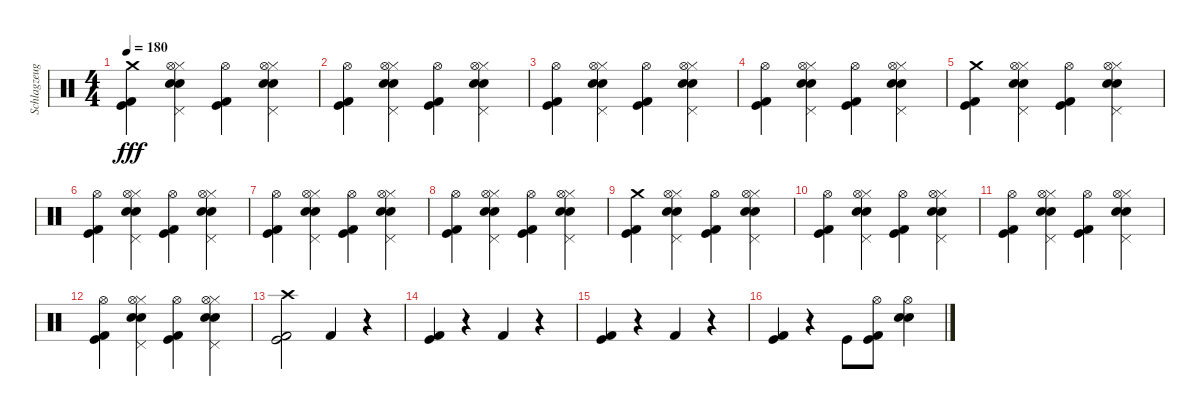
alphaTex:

\track ("Schlagzeug" "Schlagzeug") {instrument percussion}
\staff {score}
\articulation defaults
\ts (4 4)
\tempo 180
\clef neutral
\ks c
("Kick (hit)" "Kick (hit) 2" "Crash medium (hit)").4{dy fff} ("Electric Snare (hit)" "Hi-Hat (closed)" "Snare (hit) 2" "Pedal Hi-Hat (hit)" "Hi-Hat (open)").4 ("Kick (hit)" "Kick (hit) 2" "Hi-Hat (open)").4 ("Electric Snare (hit)" "Hi-Hat (closed)" "Snare (hit) 2" "Pedal Hi-Hat (hit)" "Hi-Hat (open)").4 |
("Kick (hit)" "Kick (hit) 2" "Hi-Hat (open)").4 ("Electric Snare (hit)" "Hi-Hat (closed)" "Snare (hit) 2" "Pedal Hi-Hat (hit)" "Hi-Hat (open)").4 ("Kick (hit)" "Kick (hit) 2" "Hi-Hat (open)").4 ("Electric Snare (hit)" "Hi-Hat (closed)" "Snare (hit) 2" "Pedal Hi-Hat (hit)" "Hi-Hat (open)").4 |
("Kick (hit)" "Kick (hit) 2" "Hi-Hat (open)").4 ("Electric Snare (hit)" "Hi-Hat (closed)" "Snare (hit) 2" "Pedal Hi-Hat (hit)" "Hi-Hat (open)").4 ("Kick (hit)" "Kick (hit) 2" "Hi-Hat (open)").4 ("Electric Snare (hit)" "Hi-Hat (closed)" "Snare (hit) 2" "Pedal Hi-Hat (hit)" "Hi-Hat (open)").4 |
("Kick (hit)" "Kick (hit) 2" "Hi-Hat (open)").4 ("Electric Snare (hit)" "Hi-Hat (closed)" "Snare (hit) 2" "Pedal Hi-Hat (hit)" "Hi-Hat (open)").4 ("Kick (hit)" "Kick (hit) 2" "Hi-Hat (open)").4 ("Electric Snare (hit)" "Hi-Hat (closed)" "Snare (hit) 2" "Pedal Hi-Hat (hit)" "Hi-Hat (open)").4 |
("Kick (hit)" "Kick (hit) 2" "Crash medium (hit)").4 ("Electric Snare (hit)" "Hi-Hat (closed)" "Snare (hit) 2" "Pedal Hi-Hat (hit)" "Hi-Hat (open)").4 ("Kick (hit)" "Kick (hit) 2" "Hi-Hat (open)").4 ("Electric Snare (hit)" "Hi-Hat (closed)" "Snare (hit) 2" "Pedal Hi-Hat (hit)" "Hi-Hat (open)").4 |
("Kick (hit)" "Kick (hit) 2" "Hi-Hat (open)").4 ("Electric Snare (hit)" "Hi-Hat (closed)" "Snare (hit) 2" "Pedal Hi-Hat (hit)" "Hi-Hat (open)").4 ("Kick (hit)" "Kick (hit) 2" "Hi-Hat (open)").4 ("Electric Snare (hit)" "Hi-Hat (closed)" "Snare (hit) 2" "Pedal Hi-Hat (hit)" "Hi-Hat (open)").4 |
("Kick (hit)" "Kick (hit) 2" "Hi-Hat (open)").4 ("Electric Snare (hit)" "Hi-Hat (closed)" "Snare (hit) 2" "Pedal Hi-Hat (hit)" "Hi-Hat (open)").4 ("Kick (hit)" "Kick (hit) 2" "Hi-Hat (open)").4 ("Electric Snare (hit)" "Hi-Hat (closed)" "Snare (hit) 2" "Pedal Hi-Hat (hit)" "Hi-Hat (open)").4 |
("Kick (hit)" "Kick (hit) 2" "Hi-Hat (open)").4 ("Electric Snare (hit)" "Hi-Hat (closed)" "Snare (hit) 2" "Pedal Hi-Hat (hit)" "Hi-Hat (open)").4 ("Kick (hit)" "Kick (hit) 2" "Hi-Hat (open)").4 ("Electric Snare (hit)" "Hi-Hat (closed)" "Snare (hit) 2" "Pedal Hi-Hat (hit)" "Hi-Hat (open)").4 |
("Kick (hit)" "Kick (hit) 2" "Crash medium (hit)").4 ("Electric Snare (hit)" "Hi-Hat (closed)" "Snare (hit) 2" "Pedal Hi-Hat (hit)" "Hi-Hat (open)").4 ("Kick (hit)" "Kick (hit) 2" "Hi-Hat (open)").4 ("Electric Snare (hit)" "Hi-Hat (closed)" "Snare (hit) 2" "Pedal Hi-Hat (hit)" "Hi-Hat (open)").4 |
("Kick (hit)" "Kick (hit) 2" "Hi-Hat (open)").4 ("Electric Snare (hit)" "Hi-Hat (closed)" "Snare (hit) 2" "Pedal Hi-Hat (hit)" "Hi-Hat (open)").4 ("Kick (hit)" "Kick (hit) 2" "Hi-Hat (open)").4 ("Electric Snare (hit)" "Hi-Hat (closed)" "Snare (hit) 2" "Pedal Hi-Hat (hit)" "Hi-Hat (open)").4 |
("Kick (hit)" "Kick (hit) 2" "Hi-Hat (open)").4 ("Electric Snare (hit)" "Hi-Hat (closed)" "Snare (hit) 2" "Pedal Hi-Hat (hit)" "Hi-Hat (open)").4 ("Kick (hit)" "Kick (hit) 2" "Hi-Hat (open)").4 ("Electric Snare (hit)" "Hi-Hat (closed)" "Snare (hit) 2" "Pedal Hi-Hat (hit)" "Hi-Hat (open)").4 |
("Kick (hit)" "Kick (hit) 2" "Hi-Hat (open)").4 ("Electric Snare (hit)" "Hi-Hat (closed)" "Snare (hit) 2" "Pedal Hi-Hat (hit)" "Hi-Hat (open)").4 ("Kick (hit)" "Kick (hit) 2" "Hi-Hat (open)").4 ("Electric Snare (hit)" "Hi-Hat (closed)" "Snare (hit) 2" "Pedal Hi-Hat (hit)" "Hi-Hat (open)").4 |
("Kick (hit)" "Kick (hit) 2" "Crash high (hit)").2 "Kick (hit) 2".4 r.4 |
("Kick (hit)" "Kick (hit) 2").4 r.4 "Kick (hit) 2".4 r.4 |
("Kick (hit) 2" "Kick (hit)").4 r.4 "Kick (hit) 2".4 r.4 |
("Kick (hit) 2" "Kick (hit)").4 r.4 "Kick (hit)".8 ("Hi-Hat (open)" "Kick (hit) 2" "Kick (hit)").8 ("Electric Snare (hit)" "Hi-Hat (open)" "Snare (hit) 2").4
